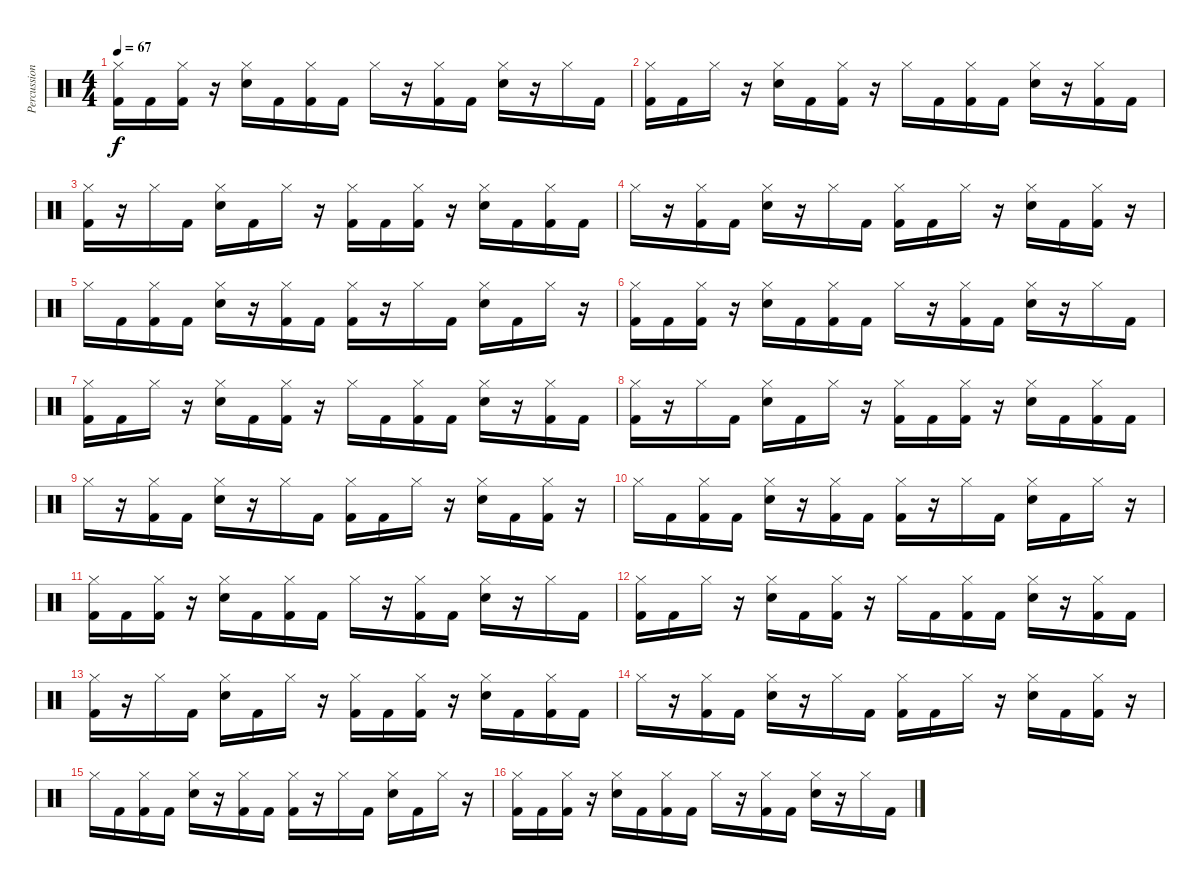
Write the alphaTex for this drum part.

\track ("Percussion" "Percussion") {instrument percussion}
\staff {score}
\articulation defaults
\ts (4 4)
\tempo 67
\clef neutral
\ks c
("Hi-Hat (closed)" "Kick (hit) 2").16{dy f} "Kick (hit) 2".16 ("Hi-Hat (closed)" "Kick (hit) 2").16 r.16 ("Hi-Hat (closed)" "Electric Snare (hit)").16 "Kick (hit) 2".16 ("Hi-Hat (closed)" "Kick (hit) 2").16 "Kick (hit) 2".16 "Hi-Hat (closed)".16 r.16 ("Hi-Hat (closed)" "Kick (hit) 2").16 "Kick (hit) 2".16 ("Hi-Hat (closed)" "Electric Snare (hit)").16 r.16 "Hi-Hat (closed)".16 "Kick (hit) 2".16 |
("Hi-Hat (closed)" "Kick (hit) 2").16 "Kick (hit) 2".16 "Hi-Hat (closed)".16 r.16 ("Hi-Hat (closed)" "Electric Snare (hit)").16 "Kick (hit) 2".16 ("Hi-Hat (closed)" "Kick (hit) 2").16 r.16 "Hi-Hat (closed)".16 "Kick (hit) 2".16 ("Hi-Hat (closed)" "Kick (hit) 2").16 "Kick (hit) 2".16 ("Hi-Hat (closed)" "Electric Snare (hit)").16 r.16 ("Hi-Hat (closed)" "Kick (hit) 2").16 "Kick (hit) 2".16 |
("Hi-Hat (closed)" "Kick (hit) 2").16 r.16 "Hi-Hat (closed)".16 "Kick (hit) 2".16 ("Hi-Hat (closed)" "Electric Snare (hit)").16 "Kick (hit) 2".16 "Hi-Hat (closed)".16 r.16 ("Hi-Hat (closed)" "Kick (hit) 2").16 "Kick (hit) 2".16 ("Hi-Hat (closed)" "Kick (hit) 2").16 r.16 ("Hi-Hat (closed)" "Electric Snare (hit)").16 "Kick (hit) 2".16 ("Hi-Hat (closed)" "Kick (hit) 2").16 "Kick (hit) 2".16 |
"Hi-Hat (closed)".16 r.16 ("Hi-Hat (closed)" "Kick (hit) 2").16 "Kick (hit) 2".16 ("Hi-Hat (closed)" "Electric Snare (hit)").16 r.16 "Hi-Hat (closed)".16 "Kick (hit) 2".16 ("Hi-Hat (closed)" "Kick (hit) 2").16 "Kick (hit) 2".16 "Hi-Hat (closed)".16 r.16 ("Hi-Hat (closed)" "Electric Snare (hit)").16 "Kick (hit) 2".16 ("Hi-Hat (closed)" "Kick (hit) 2").16 r.16 |
"Hi-Hat (closed)".16 "Kick (hit) 2".16 ("Hi-Hat (closed)" "Kick (hit) 2").16 "Kick (hit) 2".16 ("Hi-Hat (closed)" "Electric Snare (hit)").16 r.16 ("Hi-Hat (closed)" "Kick (hit) 2").16 "Kick (hit) 2".16 ("Hi-Hat (closed)" "Kick (hit) 2").16 r.16 "Hi-Hat (closed)".16 "Kick (hit) 2".16 ("Hi-Hat (closed)" "Electric Snare (hit)").16 "Kick (hit) 2".16 "Hi-Hat (closed)".16 r.16 |
("Hi-Hat (closed)" "Kick (hit) 2").16 "Kick (hit) 2".16 ("Hi-Hat (closed)" "Kick (hit) 2").16 r.16 ("Hi-Hat (closed)" "Electric Snare (hit)").16 "Kick (hit) 2".16 ("Hi-Hat (closed)" "Kick (hit) 2").16 "Kick (hit) 2".16 "Hi-Hat (closed)".16 r.16 ("Hi-Hat (closed)" "Kick (hit) 2").16 "Kick (hit) 2".16 ("Hi-Hat (closed)" "Electric Snare (hit)").16 r.16 "Hi-Hat (closed)".16 "Kick (hit) 2".16 |
("Hi-Hat (closed)" "Kick (hit) 2").16 "Kick (hit) 2".16 "Hi-Hat (closed)".16 r.16 ("Hi-Hat (closed)" "Electric Snare (hit)").16 "Kick (hit) 2".16 ("Hi-Hat (closed)" "Kick (hit) 2").16 r.16 "Hi-Hat (closed)".16 "Kick (hit) 2".16 ("Hi-Hat (closed)" "Kick (hit) 2").16 "Kick (hit) 2".16 ("Hi-Hat (closed)" "Electric Snare (hit)").16 r.16 ("Hi-Hat (closed)" "Kick (hit) 2").16 "Kick (hit) 2".16 |
("Hi-Hat (closed)" "Kick (hit) 2").16 r.16 "Hi-Hat (closed)".16 "Kick (hit) 2".16 ("Hi-Hat (closed)" "Electric Snare (hit)").16 "Kick (hit) 2".16 "Hi-Hat (closed)".16 r.16 ("Hi-Hat (closed)" "Kick (hit) 2").16 "Kick (hit) 2".16 ("Hi-Hat (closed)" "Kick (hit) 2").16 r.16 ("Hi-Hat (closed)" "Electric Snare (hit)").16 "Kick (hit) 2".16 ("Hi-Hat (closed)" "Kick (hit) 2").16 "Kick (hit) 2".16 |
"Hi-Hat (closed)".16 r.16 ("Hi-Hat (closed)" "Kick (hit) 2").16 "Kick (hit) 2".16 ("Hi-Hat (closed)" "Electric Snare (hit)").16 r.16 "Hi-Hat (closed)".16 "Kick (hit) 2".16 ("Hi-Hat (closed)" "Kick (hit) 2").16 "Kick (hit) 2".16 "Hi-Hat (closed)".16 r.16 ("Hi-Hat (closed)" "Electric Snare (hit)").16 "Kick (hit) 2".16 ("Hi-Hat (closed)" "Kick (hit) 2").16 r.16 |
"Hi-Hat (closed)".16 "Kick (hit) 2".16 ("Hi-Hat (closed)" "Kick (hit) 2").16 "Kick (hit) 2".16 ("Hi-Hat (closed)" "Electric Snare (hit)").16 r.16 ("Hi-Hat (closed)" "Kick (hit) 2").16 "Kick (hit) 2".16 ("Hi-Hat (closed)" "Kick (hit) 2").16 r.16 "Hi-Hat (closed)".16 "Kick (hit) 2".16 ("Hi-Hat (closed)" "Electric Snare (hit)").16 "Kick (hit) 2".16 "Hi-Hat (closed)".16 r.16 |
("Hi-Hat (closed)" "Kick (hit) 2").16 "Kick (hit) 2".16 ("Hi-Hat (closed)" "Kick (hit) 2").16 r.16 ("Hi-Hat (closed)" "Electric Snare (hit)").16 "Kick (hit) 2".16 ("Hi-Hat (closed)" "Kick (hit) 2").16 "Kick (hit) 2".16 "Hi-Hat (closed)".16 r.16 ("Hi-Hat (closed)" "Kick (hit) 2").16 "Kick (hit) 2".16 ("Hi-Hat (closed)" "Electric Snare (hit)").16 r.16 "Hi-Hat (closed)".16 "Kick (hit) 2".16 |
("Hi-Hat (closed)" "Kick (hit) 2").16 "Kick (hit) 2".16 "Hi-Hat (closed)".16 r.16 ("Hi-Hat (closed)" "Electric Snare (hit)").16 "Kick (hit) 2".16 ("Hi-Hat (closed)" "Kick (hit) 2").16 r.16 "Hi-Hat (closed)".16 "Kick (hit) 2".16 ("Hi-Hat (closed)" "Kick (hit) 2").16 "Kick (hit) 2".16 ("Hi-Hat (closed)" "Electric Snare (hit)").16 r.16 ("Hi-Hat (closed)" "Kick (hit) 2").16 "Kick (hit) 2".16 |
("Hi-Hat (closed)" "Kick (hit) 2").16 r.16 "Hi-Hat (closed)".16 "Kick (hit) 2".16 ("Hi-Hat (closed)" "Electric Snare (hit)").16 "Kick (hit) 2".16 "Hi-Hat (closed)".16 r.16 ("Hi-Hat (closed)" "Kick (hit) 2").16 "Kick (hit) 2".16 ("Hi-Hat (closed)" "Kick (hit) 2").16 r.16 ("Hi-Hat (closed)" "Electric Snare (hit)").16 "Kick (hit) 2".16 ("Hi-Hat (closed)" "Kick (hit) 2").16 "Kick (hit) 2".16 |
"Hi-Hat (closed)".16 r.16 ("Hi-Hat (closed)" "Kick (hit) 2").16 "Kick (hit) 2".16 ("Hi-Hat (closed)" "Electric Snare (hit)").16 r.16 "Hi-Hat (closed)".16 "Kick (hit) 2".16 ("Hi-Hat (closed)" "Kick (hit) 2").16 "Kick (hit) 2".16 "Hi-Hat (closed)".16 r.16 ("Hi-Hat (closed)" "Electric Snare (hit)").16 "Kick (hit) 2".16 ("Hi-Hat (closed)" "Kick (hit) 2").16 r.16 |
"Hi-Hat (closed)".16 "Kick (hit) 2".16 ("Hi-Hat (closed)" "Kick (hit) 2").16 "Kick (hit) 2".16 ("Hi-Hat (closed)" "Electric Snare (hit)").16 r.16 ("Hi-Hat (closed)" "Kick (hit) 2").16 "Kick (hit) 2".16 ("Hi-Hat (closed)" "Kick (hit) 2").16 r.16 "Hi-Hat (closed)".16 "Kick (hit) 2".16 ("Hi-Hat (closed)" "Electric Snare (hit)").16 "Kick (hit) 2".16 "Hi-Hat (closed)".16 r.16 |
("Hi-Hat (closed)" "Kick (hit) 2").16 "Kick (hit) 2".16 ("Hi-Hat (closed)" "Kick (hit) 2").16 r.16 ("Hi-Hat (closed)" "Electric Snare (hit)").16 "Kick (hit) 2".16 ("Hi-Hat (closed)" "Kick (hit) 2").16 "Kick (hit) 2".16 "Hi-Hat (closed)".16 r.16 ("Hi-Hat (closed)" "Kick (hit) 2").16 "Kick (hit) 2".16 ("Hi-Hat (closed)" "Electric Snare (hit)").16 r.16 "Hi-Hat (closed)".16 "Kick (hit) 2".16
